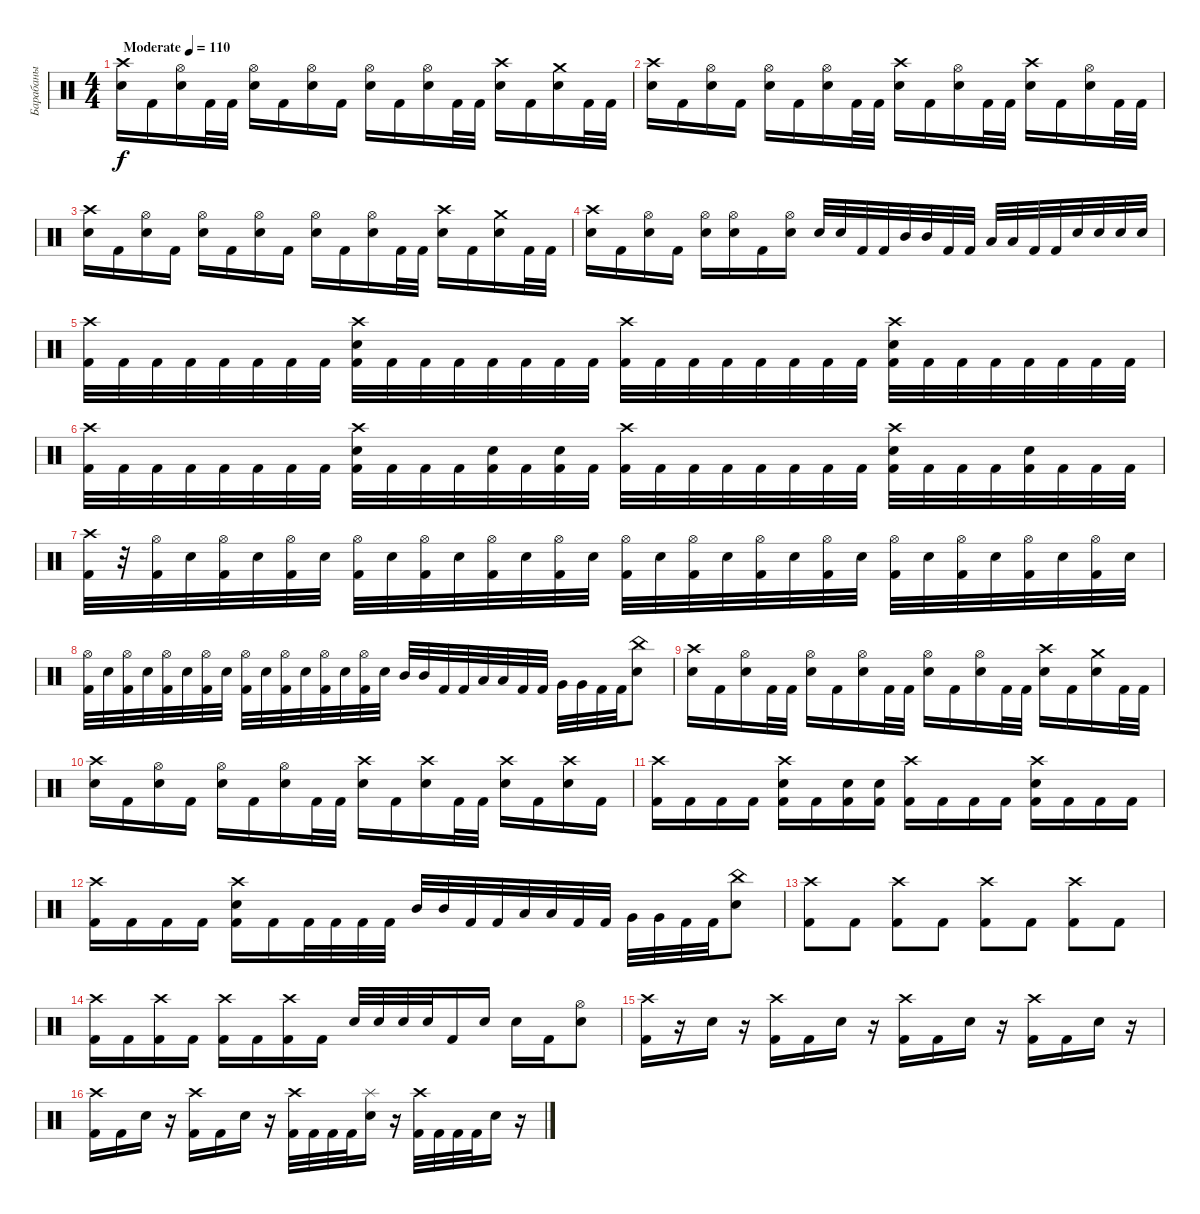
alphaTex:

\track ("Барабаны" "Барабаны") {instrument percussion}
\staff {score}
\articulation defaults
\ts (4 4)
\tempo (110 "Moderate")
\clef neutral
\ks c
("Crash high (hit)" "Electric Snare (hit)").16{dy f} "Kick (hit) 2".16 ("Hi-Hat (open)" "Electric Snare (hit)").16 "Kick (hit) 2".32 "Kick (hit) 2".32 ("Hi-Hat (open)" "Electric Snare (hit)").16 "Kick (hit) 2".16 ("Hi-Hat (open)" "Electric Snare (hit)").16 "Kick (hit) 2".16 ("Hi-Hat (open)" "Electric Snare (hit)").16 "Kick (hit) 2".16 ("Hi-Hat (open)" "Electric Snare (hit)").16 "Kick (hit) 2".32 "Kick (hit) 2".32 ("Crash high (hit)" "Electric Snare (hit)").16 "Kick (hit) 2".16 ("Crash medium (hit)" "Electric Snare (hit)").16 "Kick (hit) 2".32 "Kick (hit) 2".32 |
("Crash high (hit)" "Electric Snare (hit)").16 "Kick (hit) 2".16 ("Hi-Hat (open)" "Electric Snare (hit)").16 "Kick (hit) 2".16 ("Hi-Hat (open)" "Electric Snare (hit)").16 "Kick (hit) 2".16 ("Hi-Hat (open)" "Electric Snare (hit)").16 "Kick (hit) 2".32 "Kick (hit) 2".32 ("Crash high (hit)" "Electric Snare (hit)").16 "Kick (hit) 2".16 ("Hi-Hat (open)" "Electric Snare (hit)").16 "Kick (hit) 2".32 "Kick (hit) 2".32 ("Crash high (hit)" "Electric Snare (hit)").16 "Kick (hit) 2".16 ("Hi-Hat (open)" "Electric Snare (hit)").16 "Kick (hit) 2".32 "Kick (hit) 2".32 |
("Crash high (hit)" "Electric Snare (hit)").16 "Kick (hit) 2".16 ("Hi-Hat (open)" "Electric Snare (hit)").16 "Kick (hit) 2".16 ("Hi-Hat (open)" "Electric Snare (hit)").16 "Kick (hit) 2".16 ("Hi-Hat (open)" "Electric Snare (hit)").16 "Kick (hit) 2".16 ("Hi-Hat (open)" "Electric Snare (hit)").16 "Kick (hit) 2".16 ("Hi-Hat (open)" "Electric Snare (hit)").16 "Kick (hit) 2".32 "Kick (hit) 2".32 ("Crash high (hit)" "Electric Snare (hit)").16 "Kick (hit) 2".16 ("Crash medium (hit)" "Electric Snare (hit)").16 "Kick (hit) 2".32 "Kick (hit) 2".32 |
("Crash high (hit)" "Electric Snare (hit)").16 "Kick (hit) 2".16 ("Hi-Hat (open)" "Electric Snare (hit)").16 "Kick (hit) 2".16 ("Hi-Hat (open)" "Electric Snare (hit)").16 ("Hi-Hat (open)" "Electric Snare (hit)").16 "Kick (hit) 2".16 ("Hi-Hat (open)" "Electric Snare (hit)").16 "Electric Snare (hit)".32 "Electric Snare (hit)".32 "Kick (hit) 2".32 "Kick (hit) 2".32 "Mid Tom (hit)".32 "Mid Tom (hit)".32 "Kick (hit) 2".32 "Kick (hit) 2".32 "Low Tom (hit)".32 "Low Tom (hit)".32 "Kick (hit) 2".32 "Kick (hit) 2".32 "Electric Snare (hit)".32 "Electric Snare (hit)".32 "Electric Snare (hit)".32 "Electric Snare (hit)".32 |
("Crash high (hit)" "Kick (hit) 2").32 "Kick (hit) 2".32 "Kick (hit) 2".32 "Kick (hit) 2".32 "Kick (hit) 2".32 "Kick (hit) 2".32 "Kick (hit) 2".32 "Kick (hit) 2".32 ("Crash high (hit)" "Electric Snare (hit)" "Kick (hit) 2").32 "Kick (hit) 2".32 "Kick (hit) 2".32 "Kick (hit) 2".32 "Kick (hit) 2".32 "Kick (hit) 2".32 "Kick (hit) 2".32 "Kick (hit) 2".32 ("Crash high (hit)" "Kick (hit) 2").32 "Kick (hit) 2".32 "Kick (hit) 2".32 "Kick (hit) 2".32 "Kick (hit) 2".32 "Kick (hit) 2".32 "Kick (hit) 2".32 "Kick (hit) 2".32 ("Crash high (hit)" "Electric Snare (hit)" "Kick (hit) 2").32 "Kick (hit) 2".32 "Kick (hit) 2".32 "Kick (hit) 2".32 "Kick (hit) 2".32 "Kick (hit) 2".32 "Kick (hit) 2".32 "Kick (hit) 2".32 |
("Crash high (hit)" "Kick (hit) 2").32 "Kick (hit) 2".32 "Kick (hit) 2".32 "Kick (hit) 2".32 "Kick (hit) 2".32 "Kick (hit) 2".32 "Kick (hit) 2".32 "Kick (hit) 2".32 ("Crash high (hit)" "Electric Snare (hit)" "Kick (hit) 2").32 "Kick (hit) 2".32 "Kick (hit) 2".32 "Kick (hit) 2".32 ("Electric Snare (hit)" "Kick (hit) 2").32 "Kick (hit) 2".32 ("Electric Snare (hit)" "Kick (hit) 2").32 "Kick (hit) 2".32 ("Crash high (hit)" "Kick (hit) 2").32 "Kick (hit) 2".32 "Kick (hit) 2".32 "Kick (hit) 2".32 "Kick (hit) 2".32 "Kick (hit) 2".32 "Kick (hit) 2".32 "Kick (hit) 2".32 ("Crash high (hit)" "Electric Snare (hit)" "Kick (hit) 2").32 "Kick (hit) 2".32 "Kick (hit) 2".32 "Kick (hit) 2".32 ("Electric Snare (hit)" "Kick (hit) 2").32 "Kick (hit) 2".32 "Kick (hit) 2".32 "Kick (hit) 2".32 |
("Crash high (hit)" "Kick (hit) 2").32 r.32 ("Hi-Hat (open)" "Kick (hit) 2").32 "Electric Snare (hit)".32 ("Hi-Hat (open)" "Kick (hit) 2").32 "Electric Snare (hit)".32 ("Hi-Hat (open)" "Kick (hit) 2").32 "Electric Snare (hit)".32 ("Hi-Hat (open)" "Kick (hit) 2").32 "Electric Snare (hit)".32 ("Hi-Hat (open)" "Kick (hit) 2").32 "Electric Snare (hit)".32 ("Hi-Hat (open)" "Kick (hit) 2").32 "Electric Snare (hit)".32 ("Hi-Hat (open)" "Kick (hit) 2").32 "Electric Snare (hit)".32 ("Hi-Hat (open)" "Kick (hit) 2").32 "Electric Snare (hit)".32 ("Hi-Hat (open)" "Kick (hit) 2").32 "Electric Snare (hit)".32 ("Hi-Hat (open)" "Kick (hit) 2").32 "Electric Snare (hit)".32 ("Hi-Hat (open)" "Kick (hit) 2").32 "Electric Snare (hit)".32 ("Hi-Hat (open)" "Kick (hit) 2").32 "Electric Snare (hit)".32 ("Hi-Hat (open)" "Kick (hit) 2").32 "Electric Snare (hit)".32 ("Hi-Hat (open)" "Kick (hit) 2").32 "Electric Snare (hit)".32 ("Hi-Hat (open)" "Kick (hit) 2").32 "Electric Snare (hit)".32 |
("Hi-Hat (open)" "Kick (hit) 2").32 "Electric Snare (hit)".32 ("Hi-Hat (open)" "Kick (hit) 2").32 "Electric Snare (hit)".32 ("Hi-Hat (open)" "Kick (hit) 2").32 "Electric Snare (hit)".32 ("Hi-Hat (open)" "Kick (hit) 2").32 "Electric Snare (hit)".32 ("Hi-Hat (open)" "Kick (hit) 2").32 "Electric Snare (hit)".32 ("Hi-Hat (open)" "Kick (hit) 2").32 "Electric Snare (hit)".32 ("Hi-Hat (open)" "Kick (hit) 2").32 "Electric Snare (hit)".32 ("Hi-Hat (open)" "Kick (hit) 2").32 "Electric Snare (hit)".32 "Mid Tom (hit)".32 "Mid Tom (hit)".32 "Kick (hit) 2".32 "Kick (hit) 2".32 "Low Tom (hit)".32 "Low Tom (hit)".32 "Kick (hit) 2".32 "Kick (hit) 2".32 "Very Low Tom (hit)".32 "Very Low Tom (hit)".32 "Kick (hit) 2".32 "Kick (hit) 2".32 ("China (hit)" "Electric Snare (hit)").8 |
("Crash high (hit)" "Electric Snare (hit)").16 "Kick (hit) 2".16 ("Hi-Hat (open)" "Electric Snare (hit)").16 "Kick (hit) 2".32 "Kick (hit) 2".32 ("Hi-Hat (open)" "Electric Snare (hit)").16 "Kick (hit) 2".16 ("Hi-Hat (open)" "Electric Snare (hit)").16 "Kick (hit) 2".32 "Kick (hit) 2".32 ("Hi-Hat (open)" "Electric Snare (hit)").16 "Kick (hit) 2".16 ("Hi-Hat (open)" "Electric Snare (hit)").16 "Kick (hit) 2".32 "Kick (hit) 2".32 ("Crash high (hit)" "Electric Snare (hit)").16 "Kick (hit) 2".16 ("Crash medium (hit)" "Electric Snare (hit)").16 "Kick (hit) 2".32 "Kick (hit) 2".32 |
("Crash high (hit)" "Electric Snare (hit)").16 "Kick (hit) 2".16 ("Hi-Hat (open)" "Electric Snare (hit)").16 "Kick (hit) 2".16 ("Hi-Hat (open)" "Electric Snare (hit)").16 "Kick (hit) 2".16 ("Hi-Hat (open)" "Electric Snare (hit)").16 "Kick (hit) 2".32 "Kick (hit) 2".32 ("Crash high (hit)" "Electric Snare (hit)").16 "Kick (hit) 2".16 ("Crash high (hit)" "Electric Snare (hit)").16 "Kick (hit) 2".32 "Kick (hit) 2".32 ("Crash high (hit)" "Electric Snare (hit)").16 "Kick (hit) 2".16 ("Crash high (hit)" "Electric Snare (hit)").16 "Kick (hit) 2".16 |
("Crash high (hit)" "Kick (hit) 2").16 "Kick (hit) 2".16 "Kick (hit) 2".16 "Kick (hit) 2".16 ("Crash high (hit)" "Electric Snare (hit)" "Kick (hit) 2").16 "Kick (hit) 2".16 ("Electric Snare (hit)" "Kick (hit) 2").16 ("Electric Snare (hit)" "Kick (hit) 2").16 ("Crash high (hit)" "Kick (hit) 2").16 "Kick (hit) 2".16 "Kick (hit) 2".16 "Kick (hit) 2".16 ("Crash high (hit)" "Electric Snare (hit)" "Kick (hit) 2").16 "Kick (hit) 2".16 "Kick (hit) 2".16 "Kick (hit) 2".16 |
("Crash high (hit)" "Kick (hit) 2").16 "Kick (hit) 2".16 "Kick (hit) 2".16 "Kick (hit) 2".16 ("Crash high (hit)" "Electric Snare (hit)" "Kick (hit) 2").16 "Kick (hit) 2".16 "Kick (hit) 2".32 "Kick (hit) 2".32 "Kick (hit) 2".32 "Kick (hit) 2".32 "Mid Tom (hit)".32 "Mid Tom (hit)".32 "Kick (hit) 2".32 "Kick (hit) 2".32 "Low Tom (hit)".32 "Low Tom (hit)".32 "Kick (hit) 2".32 "Kick (hit) 2".32 "Very Low Tom (hit)".32 "Very Low Tom (hit)".32 "Kick (hit) 2".32 "Kick (hit) 2".32 ("China (hit)" "Electric Snare (hit)").8 |
("Crash high (hit)" "Kick (hit) 2").8 "Kick (hit) 2".8 ("Crash high (hit)" "Kick (hit) 2").8 "Kick (hit) 2".8 ("Crash high (hit)" "Kick (hit) 2").8 "Kick (hit) 2".8 ("Crash high (hit)" "Kick (hit) 2").8 "Kick (hit) 2".8 |
("Crash high (hit)" "Kick (hit) 2").16 "Kick (hit) 2".16 ("Crash high (hit)" "Kick (hit) 2").16 "Kick (hit) 2".16 ("Crash high (hit)" "Kick (hit) 2").16 "Kick (hit) 2".16 ("Crash high (hit)" "Kick (hit) 2").16 "Kick (hit) 2".16 "Electric Snare (hit)".32 "Electric Snare (hit)".32 "Electric Snare (hit)".32 "Electric Snare (hit)".32 "Kick (hit) 2".16 "Electric Snare (hit)".16 "Electric Snare (hit)".16 "Kick (hit) 2".16 ("Hi-Hat (open)" "Electric Snare (hit)").8 |
("Crash high (hit)" "Kick (hit) 2").16 r.16 "Electric Snare (hit)".16 r.16 ("Crash high (hit)" "Kick (hit) 2").16 "Kick (hit) 2".16 "Electric Snare (hit)".16 r.16 ("Crash high (hit)" "Kick (hit) 2").16 "Kick (hit) 2".16 "Electric Snare (hit)".16 r.16 ("Crash high (hit)" "Kick (hit) 2").16 "Kick (hit) 2".16 "Electric Snare (hit)".16 r.16 |
("Crash high (hit)" "Kick (hit) 2").16 "Kick (hit) 2".16 "Electric Snare (hit)".16 r.16 ("Crash high (hit)" "Kick (hit) 2").16 "Kick (hit) 2".16 "Electric Snare (hit)".16 r.16 ("Crash high (hit)" "Kick (hit) 2").32 "Kick (hit) 2".32 "Kick (hit) 2".32 "Kick (hit) 2".32 ("Splash (hit)" "Electric Snare (hit)").16 r.16 ("Crash high (hit)" "Kick (hit) 2").32 "Kick (hit) 2".32 "Kick (hit) 2".32 "Kick (hit) 2".32 "Electric Snare (hit)".16 r.16
